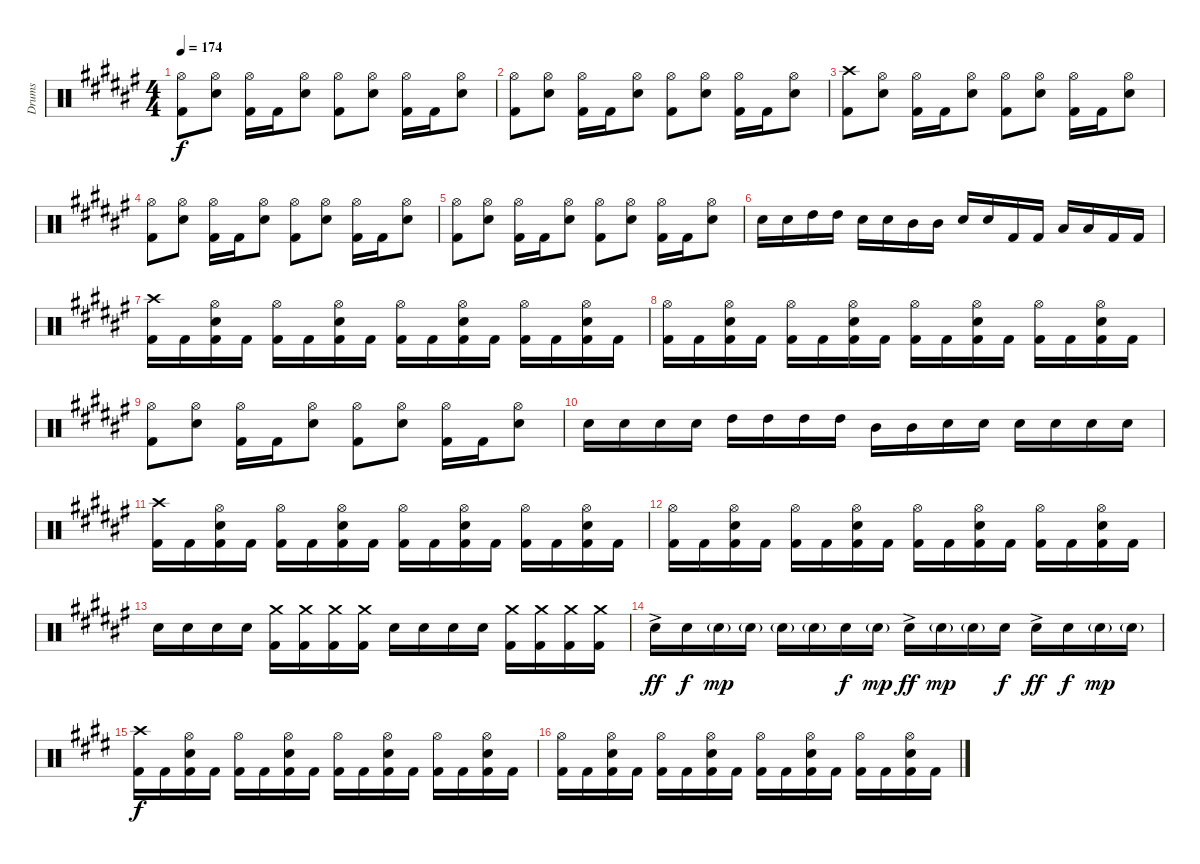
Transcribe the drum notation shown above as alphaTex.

\track ("Drums" "Drums") {instrument percussion}
\staff {score}
\articulation defaults
\ts (4 4)
\tempo 174
\clef neutral
\ks f#
("Hi-Hat (open)" "Kick (hit) 2").8{dy f} ("Hi-Hat (open)" "Snare (hit) 2").8 ("Hi-Hat (open)" "Kick (hit) 2").16 "Kick (hit) 2".16 ("Hi-Hat (open)" "Snare (hit) 2").8 ("Hi-Hat (open)" "Kick (hit) 2").8 ("Hi-Hat (open)" "Snare (hit) 2").8 ("Hi-Hat (open)" "Kick (hit) 2").16 "Kick (hit) 2".16 ("Hi-Hat (open)" "Snare (hit) 2").8 |
("Hi-Hat (open)" "Kick (hit) 2").8 ("Hi-Hat (open)" "Snare (hit) 2").8 ("Hi-Hat (open)" "Kick (hit) 2").16 "Kick (hit) 2".16 ("Hi-Hat (open)" "Snare (hit) 2").8 ("Hi-Hat (open)" "Kick (hit) 2").8 ("Hi-Hat (open)" "Snare (hit) 2").8 ("Hi-Hat (open)" "Kick (hit) 2").16 "Kick (hit) 2".16 ("Hi-Hat (open)" "Snare (hit) 2").8 |
("Crash high (hit)" "Kick (hit) 2").8 ("Hi-Hat (open)" "Snare (hit) 2").8 ("Hi-Hat (open)" "Kick (hit) 2").16 "Kick (hit) 2".16 ("Hi-Hat (open)" "Snare (hit) 2").8 ("Hi-Hat (open)" "Kick (hit) 2").8 ("Hi-Hat (open)" "Snare (hit) 2").8 ("Hi-Hat (open)" "Kick (hit) 2").16 "Kick (hit) 2".16 ("Hi-Hat (open)" "Snare (hit) 2").8 |
("Hi-Hat (open)" "Kick (hit) 2").8 ("Hi-Hat (open)" "Snare (hit) 2").8 ("Hi-Hat (open)" "Kick (hit) 2").16 "Kick (hit) 2".16 ("Hi-Hat (open)" "Snare (hit) 2").8 ("Hi-Hat (open)" "Kick (hit) 2").8 ("Hi-Hat (open)" "Snare (hit) 2").8 ("Hi-Hat (open)" "Kick (hit) 2").16 "Kick (hit) 2".16 ("Hi-Hat (open)" "Snare (hit) 2").8 |
("Hi-Hat (open)" "Kick (hit) 2").8 ("Hi-Hat (open)" "Snare (hit) 2").8 ("Hi-Hat (open)" "Kick (hit) 2").16 "Kick (hit) 2".16 ("Hi-Hat (open)" "Snare (hit) 2").8 ("Hi-Hat (open)" "Kick (hit) 2").8 ("Hi-Hat (open)" "Snare (hit) 2").8 ("Hi-Hat (open)" "Kick (hit) 2").16 "Kick (hit) 2".16 ("Hi-Hat (open)" "Snare (hit) 2").8 |
"Snare (hit) 2".16 "Snare (hit) 2".16 "High Tom (hit)".16 "High Tom (hit)".16 "Snare (hit) 2".16 "Snare (hit) 2".16 "Mid Tom (hit)".16 "Mid Tom (hit)".16 "Snare (hit) 2".16 "Snare (hit) 2".16 "Kick (hit) 2".16 "Kick (hit) 2".16 "Low Tom (hit)".16 "Low Tom (hit)".16 "Kick (hit) 2".16 "Kick (hit) 2".16 |
("Crash high (hit)" "Kick (hit) 2").16 "Kick (hit) 2".16 ("Hi-Hat (open)" "Snare (hit) 2" "Kick (hit) 2").16 "Kick (hit) 2".16 ("Hi-Hat (open)" "Kick (hit) 2").16 "Kick (hit) 2".16 ("Hi-Hat (open)" "Snare (hit) 2" "Kick (hit) 2").16 "Kick (hit) 2".16 ("Hi-Hat (open)" "Kick (hit) 2").16 "Kick (hit) 2".16 ("Hi-Hat (open)" "Snare (hit) 2" "Kick (hit) 2").16 "Kick (hit) 2".16 ("Hi-Hat (open)" "Kick (hit) 2").16 "Kick (hit) 2".16 ("Hi-Hat (open)" "Snare (hit) 2" "Kick (hit) 2").16 "Kick (hit) 2".16 |
("Hi-Hat (open)" "Kick (hit) 2").16 "Kick (hit) 2".16 ("Hi-Hat (open)" "Snare (hit) 2" "Kick (hit) 2").16 "Kick (hit) 2".16 ("Hi-Hat (open)" "Kick (hit) 2").16 "Kick (hit) 2".16 ("Hi-Hat (open)" "Snare (hit) 2" "Kick (hit) 2").16 "Kick (hit) 2".16 ("Hi-Hat (open)" "Kick (hit) 2").16 "Kick (hit) 2".16 ("Hi-Hat (open)" "Snare (hit) 2" "Kick (hit) 2").16 "Kick (hit) 2".16 ("Hi-Hat (open)" "Kick (hit) 2").16 "Kick (hit) 2".16 ("Hi-Hat (open)" "Snare (hit) 2" "Kick (hit) 2").16 "Kick (hit) 2".16 |
("Hi-Hat (open)" "Kick (hit) 2").8 ("Hi-Hat (open)" "Snare (hit) 2").8 ("Hi-Hat (open)" "Kick (hit) 2").16 "Kick (hit) 2".16 ("Hi-Hat (open)" "Snare (hit) 2").8 ("Hi-Hat (open)" "Kick (hit) 2").8 ("Hi-Hat (open)" "Snare (hit) 2").8 ("Hi-Hat (open)" "Kick (hit) 2").16 "Kick (hit) 2".16 ("Hi-Hat (open)" "Snare (hit) 2").8 |
"Snare (hit) 2".16 "Snare (hit) 2".16 "Snare (hit) 2".16 "Snare (hit) 2".16 "High Tom (hit)".16 "High Tom (hit)".16 "High Tom (hit)".16 "High Tom (hit)".16 "Mid Tom (hit)".16 "Mid Tom (hit)".16 "Snare (hit) 2".16 "Snare (hit) 2".16 "Snare (hit) 2".16 "Snare (hit) 2".16 "Snare (hit) 2".16 "Snare (hit) 2".16 |
("Crash high (hit)" "Kick (hit) 2").16 "Kick (hit) 2".16 ("Hi-Hat (open)" "Snare (hit) 2" "Kick (hit) 2").16 "Kick (hit) 2".16 ("Hi-Hat (open)" "Kick (hit) 2").16 "Kick (hit) 2".16 ("Hi-Hat (open)" "Snare (hit) 2" "Kick (hit) 2").16 "Kick (hit) 2".16 ("Hi-Hat (open)" "Kick (hit) 2").16 "Kick (hit) 2".16 ("Hi-Hat (open)" "Snare (hit) 2" "Kick (hit) 2").16 "Kick (hit) 2".16 ("Hi-Hat (open)" "Kick (hit) 2").16 "Kick (hit) 2".16 ("Hi-Hat (open)" "Snare (hit) 2" "Kick (hit) 2").16 "Kick (hit) 2".16 |
("Hi-Hat (open)" "Kick (hit) 2").16 "Kick (hit) 2".16 ("Hi-Hat (open)" "Snare (hit) 2" "Kick (hit) 2").16 "Kick (hit) 2".16 ("Hi-Hat (open)" "Kick (hit) 2").16 "Kick (hit) 2".16 ("Hi-Hat (open)" "Snare (hit) 2" "Kick (hit) 2").16 "Kick (hit) 2".16 ("Hi-Hat (open)" "Kick (hit) 2").16 "Kick (hit) 2".16 ("Hi-Hat (open)" "Snare (hit) 2" "Kick (hit) 2").16 "Kick (hit) 2".16 ("Hi-Hat (open)" "Kick (hit) 2").16 "Kick (hit) 2".16 ("Hi-Hat (open)" "Snare (hit) 2" "Kick (hit) 2").16 "Kick (hit) 2".16 |
"Snare (hit) 2".16 "Snare (hit) 2".16 "Snare (hit) 2".16 "Snare (hit) 2".16 ("Crash medium (hit)" "Kick (hit) 2").16 ("Crash medium (hit)" "Kick (hit) 2").16 ("Crash medium (hit)" "Kick (hit) 2").16 ("Crash medium (hit)" "Kick (hit) 2").16 "Snare (hit) 2".16 "Snare (hit) 2".16 "Snare (hit) 2".16 "Snare (hit) 2".16 ("Crash medium (hit)" "Kick (hit) 2").16 ("Crash medium (hit)" "Kick (hit) 2").16 ("Crash medium (hit)" "Kick (hit) 2").16 ("Crash medium (hit)" "Kick (hit) 2").16 |
"Snare (hit) 2"{ac}.16{dy ff} "Snare (hit) 2".16{dy f} "Snare (hit) 2"{g}.16{dy mp} "Snare (hit) 2"{g}.16 "Snare (hit) 2"{g}.16 "Snare (hit) 2"{g}.16 "Snare (hit) 2".16{dy f} "Snare (hit) 2"{g}.16{dy mp} "Snare (hit) 2"{ac}.16{dy ff} "Snare (hit) 2"{g}.16{dy mp} "Snare (hit) 2"{g}.16 "Snare (hit) 2".16{dy f} "Snare (hit) 2"{ac}.16{dy ff} "Snare (hit) 2".16{dy f} "Snare (hit) 2"{g}.16{dy mp} "Snare (hit) 2"{g}.16 |
\ks e
("Crash high (hit)" "Kick (hit) 2").16{dy f} "Kick (hit) 2".16 ("Hi-Hat (open)" "Snare (hit) 2" "Kick (hit) 2").16 "Kick (hit) 2".16 ("Hi-Hat (open)" "Kick (hit) 2").16 "Kick (hit) 2".16 ("Hi-Hat (open)" "Snare (hit) 2" "Kick (hit) 2").16 "Kick (hit) 2".16 ("Hi-Hat (open)" "Kick (hit) 2").16 "Kick (hit) 2".16 ("Hi-Hat (open)" "Snare (hit) 2" "Kick (hit) 2").16 "Kick (hit) 2".16 ("Hi-Hat (open)" "Kick (hit) 2").16 "Kick (hit) 2".16 ("Hi-Hat (open)" "Snare (hit) 2" "Kick (hit) 2").16 "Kick (hit) 2".16 |
("Hi-Hat (open)" "Kick (hit) 2").16 "Kick (hit) 2".16 ("Hi-Hat (open)" "Snare (hit) 2" "Kick (hit) 2").16 "Kick (hit) 2".16 ("Hi-Hat (open)" "Kick (hit) 2").16 "Kick (hit) 2".16 ("Hi-Hat (open)" "Snare (hit) 2" "Kick (hit) 2").16 "Kick (hit) 2".16 ("Hi-Hat (open)" "Kick (hit) 2").16 "Kick (hit) 2".16 ("Hi-Hat (open)" "Snare (hit) 2" "Kick (hit) 2").16 "Kick (hit) 2".16 ("Hi-Hat (open)" "Kick (hit) 2").16 "Kick (hit) 2".16 ("Hi-Hat (open)" "Snare (hit) 2" "Kick (hit) 2").16 "Kick (hit) 2".16
